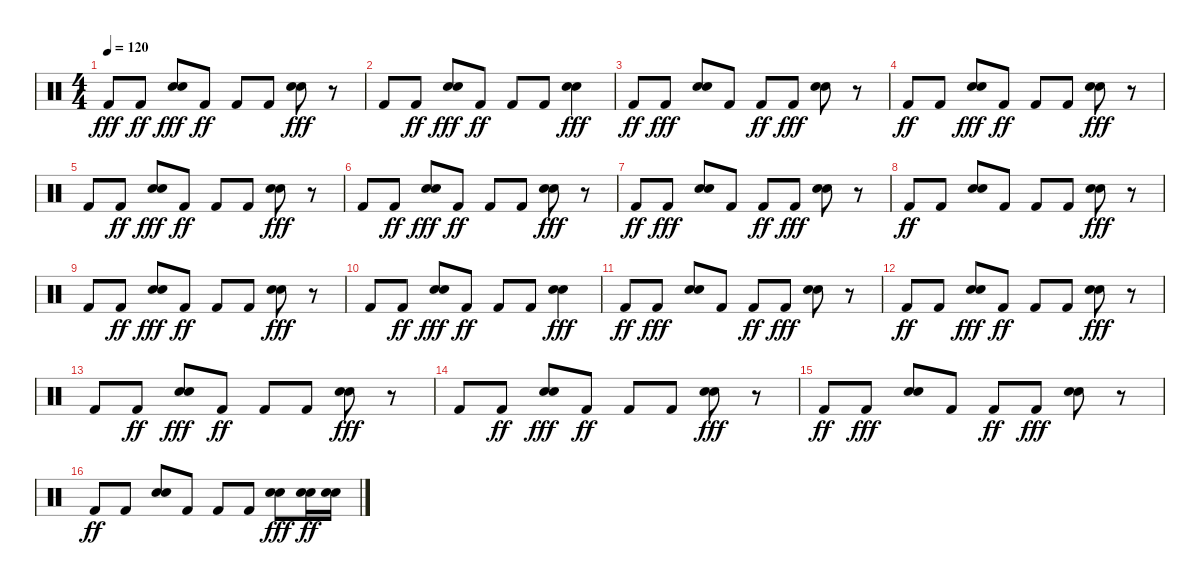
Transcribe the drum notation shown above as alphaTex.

\track "" {instrument percussion}
\staff {score}
\articulation defaults
\ts (4 4)
\tempo 120
\clef neutral
\ks c "Kick (hit) 2".8{dy fff} "Kick (hit) 2".8{dy ff}
("Electric Snare (hit)" "Snare (hit) 2").8{dy fff} "Kick (hit) 2".8{dy ff} "Kick (hit) 2".8 "Kick (hit) 2".8 ("Electric Snare (hit)" "Snare (hit) 2").8{dy fff} r.8 |
"Kick (hit) 2".8 "Kick (hit) 2".8{dy ff} ("Electric Snare (hit)" "Snare (hit) 2").8{dy fff} "Kick (hit) 2".8{dy ff} "Kick (hit) 2".8 "Kick (hit) 2".8 ("Electric Snare (hit)" "Snare (hit) 2").4{dy fff} |
"Kick (hit) 2".8{dy ff} "Kick (hit) 2".8{dy fff} ("Snare (hit) 2" "Electric Snare (hit)").8 "Kick (hit) 2".8 "Kick (hit) 2".8{dy ff} "Kick (hit) 2".8{dy fff} ("Snare (hit) 2" "Electric Snare (hit)").8 r.8 |
"Kick (hit) 2".8{dy ff} "Kick (hit) 2".8 ("Electric Snare (hit)" "Snare (hit) 2").8{dy fff} "Kick (hit) 2".8{dy ff} "Kick (hit) 2".8 "Kick (hit) 2".8 ("Snare (hit) 2" "Electric Snare (hit)").8{dy fff} r.8 |
"Kick (hit) 2".8 "Kick (hit) 2".8{dy ff} ("Electric Snare (hit)" "Snare (hit) 2").8{dy fff} "Kick (hit) 2".8{dy ff} "Kick (hit) 2".8 "Kick (hit) 2".8 ("Electric Snare (hit)" "Snare (hit) 2").8{dy fff} r.8 |
"Kick (hit) 2".8 "Kick (hit) 2".8{dy ff} ("Electric Snare (hit)" "Snare (hit) 2").8{dy fff} "Kick (hit) 2".8{dy ff} "Kick (hit) 2".8 "Kick (hit) 2".8 ("Snare (hit) 2" "Electric Snare (hit)").8{dy fff} r.8 |
"Kick (hit) 2".8{dy ff} "Kick (hit) 2".8{dy fff} ("Electric Snare (hit)" "Snare (hit) 2").8 "Kick (hit) 2".8 "Kick (hit) 2".8{dy ff} "Kick (hit) 2".8{dy fff} ("Snare (hit) 2" "Electric Snare (hit)").8 r.8 |
"Kick (hit) 2".8{dy ff} "Kick (hit) 2".8 ("Snare (hit) 2" "Electric Snare (hit)").8 "Kick (hit) 2".8 "Kick (hit) 2".8 "Kick (hit) 2".8 ("Electric Snare (hit)" "Snare (hit) 2").8{dy fff} r.8 |
"Kick (hit) 2".8 "Kick (hit) 2".8{dy ff} ("Electric Snare (hit)" "Snare (hit) 2").8{dy fff} "Kick (hit) 2".8{dy ff} "Kick (hit) 2".8 "Kick (hit) 2".8 ("Electric Snare (hit)" "Snare (hit) 2").8{dy fff} r.8 |
"Kick (hit) 2".8 "Kick (hit) 2".8{dy ff} ("Electric Snare (hit)" "Snare (hit) 2").8{dy fff} "Kick (hit) 2".8{dy ff} "Kick (hit) 2".8 "Kick (hit) 2".8 ("Electric Snare (hit)" "Snare (hit) 2").4{dy fff} |
"Kick (hit) 2".8{dy ff} "Kick (hit) 2".8{dy fff} ("Snare (hit) 2" "Electric Snare (hit)").8 "Kick (hit) 2".8 "Kick (hit) 2".8{dy ff} "Kick (hit) 2".8{dy fff} ("Snare (hit) 2" "Electric Snare (hit)").8 r.8 |
"Kick (hit) 2".8{dy ff} "Kick (hit) 2".8 ("Electric Snare (hit)" "Snare (hit) 2").8{dy fff} "Kick (hit) 2".8{dy ff} "Kick (hit) 2".8 "Kick (hit) 2".8 ("Snare (hit) 2" "Electric Snare (hit)").8{dy fff} r.8 |
"Kick (hit) 2".8 "Kick (hit) 2".8{dy ff} ("Electric Snare (hit)" "Snare (hit) 2").8{dy fff} "Kick (hit) 2".8{dy ff} "Kick (hit) 2".8 "Kick (hit) 2".8 ("Electric Snare (hit)" "Snare (hit) 2").8{dy fff} r.8 |
"Kick (hit) 2".8 "Kick (hit) 2".8{dy ff} ("Electric Snare (hit)" "Snare (hit) 2").8{dy fff} "Kick (hit) 2".8{dy ff} "Kick (hit) 2".8 "Kick (hit) 2".8 ("Snare (hit) 2" "Electric Snare (hit)").8{dy fff} r.8 |
"Kick (hit) 2".8{dy ff} "Kick (hit) 2".8{dy fff} ("Electric Snare (hit)" "Snare (hit) 2").8 "Kick (hit) 2".8 "Kick (hit) 2".8{dy ff} "Kick (hit) 2".8{dy fff} ("Snare (hit) 2" "Electric Snare (hit)").8 r.8 |
"Kick (hit) 2".8{dy ff} "Kick (hit) 2".8 ("Snare (hit) 2" "Electric Snare (hit)").8 "Kick (hit) 2".8 "Kick (hit) 2".8 "Kick (hit) 2".8 ("Electric Snare (hit)" "Snare (hit) 2").8{dy fff} ("Electric Snare (hit)" "Snare (hit) 2").16{dy ff} ("Snare (hit) 2" "Electric Snare (hit)").16
